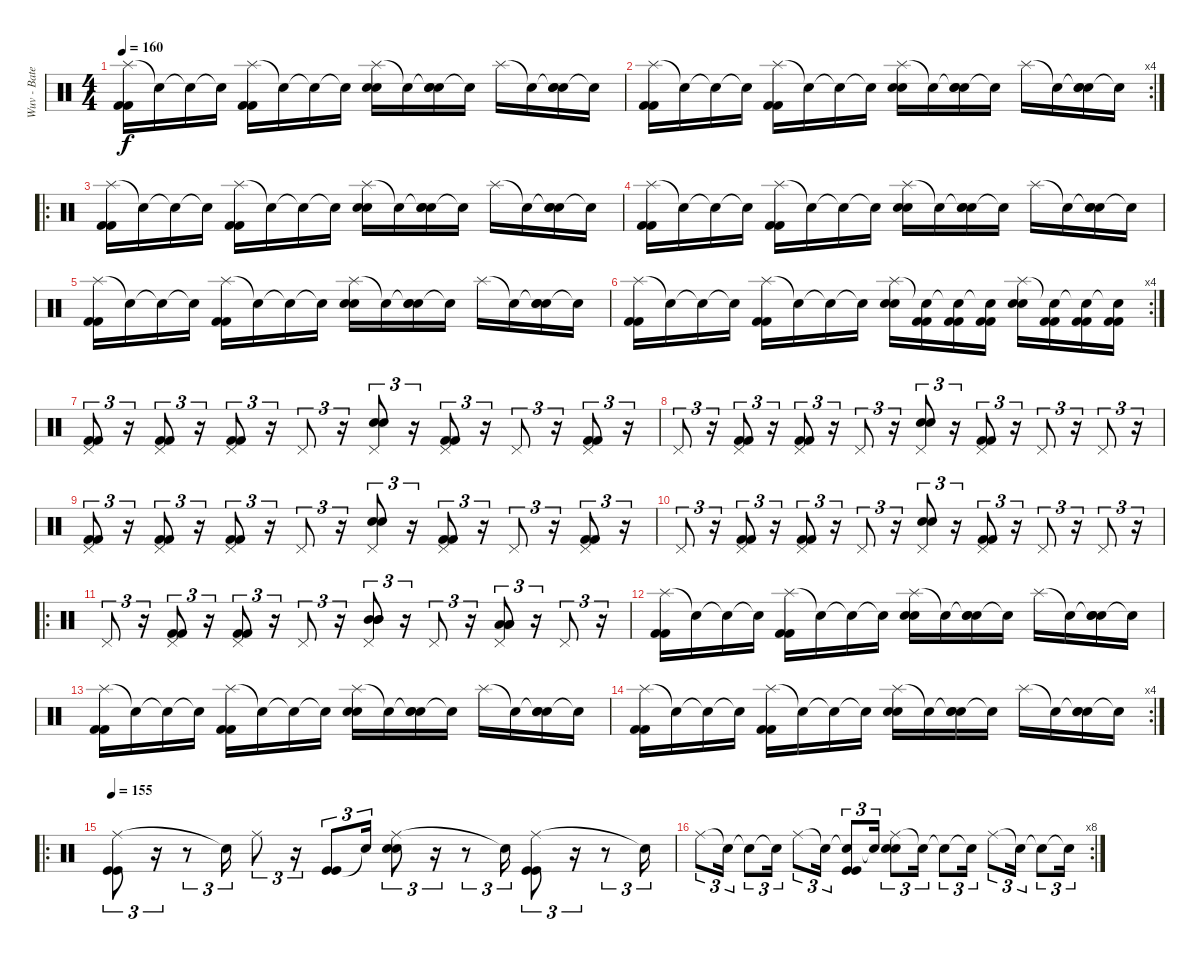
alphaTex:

\track ("Wuv - Bateria" "Wuv - Bate") {instrument percussion}
\staff {score}
\articulation defaults
\ts (4 4)
\tempo 160
\clef neutral
\ks c
("Splash (hit)" "Kick (hit) 2" "Kick (hit) 2").16{dy f} "Snare (hit)"{t}.16 "Snare (hit)"{t}.16 "Snare (hit)"{t}.16 ("Splash (hit)" "Kick (hit) 2" "Kick (hit) 2").16 "Snare (hit)"{t}.16 "Snare (hit)"{t}.16 "Snare (hit)"{t}.16 ("Splash (hit)" "Electric Snare (hit)" "Electric Snare (hit)").16 "Snare (hit)"{t}.16 ("Snare (hit)"{t} "Electric Snare (hit)" "Electric Snare (hit)").16 "Snare (hit)"{t}.16 "Splash (hit)".16 "Snare (hit)"{t}.16 ("Snare (hit)"{t} "Electric Snare (hit)" "Electric Snare (hit)").16 "Snare (hit)"{t}.16 |
\rc 4
("Splash (hit)" "Kick (hit) 2" "Kick (hit) 2").16 "Snare (hit)"{t}.16 "Snare (hit)"{t}.16 "Snare (hit)"{t}.16 ("Splash (hit)" "Kick (hit) 2" "Kick (hit) 2").16 "Snare (hit)"{t}.16 "Snare (hit)"{t}.16 "Snare (hit)"{t}.16 ("Splash (hit)" "Electric Snare (hit)" "Electric Snare (hit)").16 "Snare (hit)"{t}.16 ("Snare (hit)"{t} "Electric Snare (hit)" "Electric Snare (hit)").16 "Snare (hit)"{t}.16 "Splash (hit)".16 "Snare (hit)"{t}.16 ("Snare (hit)"{t} "Electric Snare (hit)" "Electric Snare (hit)").16 "Snare (hit)"{t}.16 |
\ro
("Splash (hit)" "Kick (hit) 2" "Kick (hit) 2").16 "Snare (hit)"{t}.16 "Snare (hit)"{t}.16 "Snare (hit)"{t}.16 ("Splash (hit)" "Kick (hit) 2" "Kick (hit) 2").16 "Snare (hit)"{t}.16 "Snare (hit)"{t}.16 "Snare (hit)"{t}.16 ("Splash (hit)" "Electric Snare (hit)" "Electric Snare (hit)").16 "Snare (hit)"{t}.16 ("Snare (hit)"{t} "Electric Snare (hit)" "Electric Snare (hit)").16 "Snare (hit)"{t}.16 "Splash (hit)".16 "Snare (hit)"{t}.16 ("Snare (hit)"{t} "Electric Snare (hit)" "Electric Snare (hit)").16 "Snare (hit)"{t}.16 |
("Splash (hit)" "Kick (hit) 2" "Kick (hit) 2").16 "Snare (hit)"{t}.16 "Snare (hit)"{t}.16 "Snare (hit)"{t}.16 ("Splash (hit)" "Kick (hit) 2" "Kick (hit) 2").16 "Snare (hit)"{t}.16 "Snare (hit)"{t}.16 "Snare (hit)"{t}.16 ("Splash (hit)" "Electric Snare (hit)" "Electric Snare (hit)").16 "Snare (hit)"{t}.16 ("Snare (hit)"{t} "Electric Snare (hit)" "Electric Snare (hit)").16 "Snare (hit)"{t}.16 "Splash (hit)".16 "Snare (hit)"{t}.16 ("Snare (hit)"{t} "Electric Snare (hit)" "Electric Snare (hit)").16 "Snare (hit)"{t}.16 |
("Splash (hit)" "Kick (hit) 2" "Kick (hit) 2").16 "Snare (hit)"{t}.16 "Snare (hit)"{t}.16 "Snare (hit)"{t}.16 ("Splash (hit)" "Kick (hit) 2" "Kick (hit) 2").16 "Snare (hit)"{t}.16 "Snare (hit)"{t}.16 "Snare (hit)"{t}.16 ("Splash (hit)" "Electric Snare (hit)" "Electric Snare (hit)").16 "Snare (hit)"{t}.16 ("Snare (hit)"{t} "Electric Snare (hit)" "Electric Snare (hit)").16 "Snare (hit)"{t}.16 "Splash (hit)".16 "Snare (hit)"{t}.16 ("Snare (hit)"{t} "Electric Snare (hit)" "Electric Snare (hit)").16 "Snare (hit)"{t}.16 |
\rc 4
("Splash (hit)" "Kick (hit) 2" "Kick (hit) 2").16 "Snare (hit)"{t}.16 "Snare (hit)"{t}.16 "Snare (hit)"{t}.16 ("Splash (hit)" "Kick (hit) 2" "Kick (hit) 2").16 "Snare (hit)"{t}.16 "Snare (hit)"{t}.16 "Snare (hit)"{t}.16 ("Splash (hit)" "Electric Snare (hit)" "Electric Snare (hit)").16 ("Snare (hit)"{t} "Kick (hit) 2" "Kick (hit) 2").16 ("Snare (hit)"{t} "Kick (hit) 2" "Kick (hit) 2").16 ("Snare (hit)"{t} "Kick (hit) 2" "Kick (hit) 2").16 ("Splash (hit)" "Electric Snare (hit)" "Electric Snare (hit)").16 ("Snare (hit)"{t} "Kick (hit) 2" "Kick (hit) 2").16 ("Snare (hit)"{t} "Kick (hit) 2" "Kick (hit) 2").16 ("Snare (hit)"{t} "Kick (hit) 2" "Kick (hit) 2").16 |
("Pedal Hi-Hat (hit)" "Kick (hit) 2" "Kick (hit) 2").8{tu (3 2)} r.16{tu (3 2)} ("Pedal Hi-Hat (hit)" "Kick (hit) 2" "Kick (hit) 2").8{tu (3 2)} r.16{tu (3 2)} ("Pedal Hi-Hat (hit)" "Kick (hit) 2" "Kick (hit) 2").8{tu (3 2)} r.16{tu (3 2)} "Pedal Hi-Hat (hit)".8{tu (3 2)} r.16{tu (3 2)} ("Pedal Hi-Hat (hit)" "Electric Snare (hit)" "Electric Snare (hit)").8{tu (3 2)} r.16{tu (3 2)} ("Pedal Hi-Hat (hit)" "Kick (hit) 2" "Kick (hit) 2").8{tu (3 2)} r.16{tu (3 2)} "Pedal Hi-Hat (hit)".8{tu (3 2)} r.16{tu (3 2)} ("Pedal Hi-Hat (hit)" "Kick (hit) 2" "Kick (hit) 2").8{tu (3 2)} r.16{tu (3 2)} |
"Pedal Hi-Hat (hit)".8{tu (3 2)} r.16{tu (3 2)} ("Pedal Hi-Hat (hit)" "Kick (hit) 2" "Kick (hit) 2").8{tu (3 2)} r.16{tu (3 2)} ("Pedal Hi-Hat (hit)" "Kick (hit) 2" "Kick (hit) 2").8{tu (3 2)} r.16{tu (3 2)} "Pedal Hi-Hat (hit)".8{tu (3 2)} r.16{tu (3 2)} ("Pedal Hi-Hat (hit)" "Electric Snare (hit)" "Electric Snare (hit)").8{tu (3 2)} r.16{tu (3 2)} ("Pedal Hi-Hat (hit)" "Kick (hit) 2" "Kick (hit) 2").8{tu (3 2)} r.16{tu (3 2)} "Pedal Hi-Hat (hit)".8{tu (3 2)} r.16{tu (3 2)} "Pedal Hi-Hat (hit)".8{tu (3 2)} r.16{tu (3 2)} |
("Pedal Hi-Hat (hit)" "Kick (hit) 2" "Kick (hit) 2").8{tu (3 2)} r.16{tu (3 2)} ("Pedal Hi-Hat (hit)" "Kick (hit) 2" "Kick (hit) 2").8{tu (3 2)} r.16{tu (3 2)} ("Pedal Hi-Hat (hit)" "Kick (hit) 2" "Kick (hit) 2").8{tu (3 2)} r.16{tu (3 2)} "Pedal Hi-Hat (hit)".8{tu (3 2)} r.16{tu (3 2)} ("Pedal Hi-Hat (hit)" "Electric Snare (hit)" "Electric Snare (hit)").8{tu (3 2)} r.16{tu (3 2)} ("Pedal Hi-Hat (hit)" "Kick (hit) 2" "Kick (hit) 2").8{tu (3 2)} r.16{tu (3 2)} "Pedal Hi-Hat (hit)".8{tu (3 2)} r.16{tu (3 2)} ("Pedal Hi-Hat (hit)" "Kick (hit) 2" "Kick (hit) 2").8{tu (3 2)} r.16{tu (3 2)} |
"Pedal Hi-Hat (hit)".8{tu (3 2)} r.16{tu (3 2)} ("Pedal Hi-Hat (hit)" "Kick (hit) 2" "Kick (hit) 2").8{tu (3 2)} r.16{tu (3 2)} ("Pedal Hi-Hat (hit)" "Kick (hit) 2" "Kick (hit) 2").8{tu (3 2)} r.16{tu (3 2)} "Pedal Hi-Hat (hit)".8{tu (3 2)} r.16{tu (3 2)} ("Pedal Hi-Hat (hit)" "Electric Snare (hit)" "Electric Snare (hit)").8{tu (3 2)} r.16{tu (3 2)} ("Pedal Hi-Hat (hit)" "Kick (hit) 2" "Kick (hit) 2").8{tu (3 2)} r.16{tu (3 2)} "Pedal Hi-Hat (hit)".8{tu (3 2)} r.16{tu (3 2)} "Pedal Hi-Hat (hit)".8{tu (3 2)} r.16{tu (3 2)} |
\ro "Pedal Hi-Hat (hit)".8{tu (3 2)}
r.16{tu (3 2)} ("Pedal Hi-Hat (hit)" "Kick (hit) 2" "Kick (hit) 2").8{tu (3 2)} r.16{tu (3 2)} ("Pedal Hi-Hat (hit)" "Kick (hit) 2" "Kick (hit) 2").8{tu (3 2)} r.16{tu (3 2)} "Pedal Hi-Hat (hit)".8{tu (3 2)} r.16{tu (3 2)} ("Pedal Hi-Hat (hit)" "Mid Tom (hit)" "Mid Tom (hit)" "Mid Tom (hit)").8{tu (3 2)} r.16{tu (3 2)} "Pedal Hi-Hat (hit)".8{tu (3 2)} r.16{tu (3 2)} ("Pedal Hi-Hat (hit)" "Low Tom (hit)" "Low Tom (hit)" "Low Tom (hit)").8{tu (3 2)} r.16{tu (3 2)} "Pedal Hi-Hat (hit)".8{tu (3 2)} r.16{tu (3 2)} |
("Splash (hit)" "Kick (hit) 2" "Kick (hit) 2").16 "Snare (hit)"{t}.16 "Snare (hit)"{t}.16 "Snare (hit)"{t}.16 ("Splash (hit)" "Kick (hit) 2" "Kick (hit) 2").16 "Snare (hit)"{t}.16 "Snare (hit)"{t}.16 "Snare (hit)"{t}.16 ("Splash (hit)" "Electric Snare (hit)" "Electric Snare (hit)").16 "Snare (hit)"{t}.16 ("Snare (hit)"{t} "Electric Snare (hit)" "Electric Snare (hit)").16 "Snare (hit)"{t}.16 "Splash (hit)".16 "Snare (hit)"{t}.16 ("Snare (hit)"{t} "Electric Snare (hit)" "Electric Snare (hit)").16 "Snare (hit)"{t}.16 |
("Splash (hit)" "Kick (hit) 2" "Kick (hit) 2").16 "Snare (hit)"{t}.16 "Snare (hit)"{t}.16 "Snare (hit)"{t}.16 ("Splash (hit)" "Kick (hit) 2" "Kick (hit) 2").16 "Snare (hit)"{t}.16 "Snare (hit)"{t}.16 "Snare (hit)"{t}.16 ("Splash (hit)" "Electric Snare (hit)" "Electric Snare (hit)").16 "Snare (hit)"{t}.16 ("Snare (hit)"{t} "Electric Snare (hit)" "Electric Snare (hit)").16 "Snare (hit)"{t}.16 "Splash (hit)".16 "Snare (hit)"{t}.16 ("Snare (hit)"{t} "Electric Snare (hit)" "Electric Snare (hit)").16 "Snare (hit)"{t}.16 |
\rc 4
("Splash (hit)" "Kick (hit) 2" "Kick (hit) 2").16 "Snare (hit)"{t}.16 "Snare (hit)"{t}.16 "Snare (hit)"{t}.16 ("Splash (hit)" "Kick (hit) 2" "Kick (hit) 2").16 "Snare (hit)"{t}.16 "Snare (hit)"{t}.16 "Snare (hit)"{t}.16 ("Splash (hit)" "Electric Snare (hit)" "Electric Snare (hit)").16 "Snare (hit)"{t}.16 ("Snare (hit)"{t} "Electric Snare (hit)" "Electric Snare (hit)").16 "Snare (hit)"{t}.16 "Splash (hit)".16 "Snare (hit)"{t}.16 ("Snare (hit)"{t} "Electric Snare (hit)" "Electric Snare (hit)").16 "Snare (hit)"{t}.16 |
\ro
\tempo 155
("Ride (middle)" "Kick (hit)" "Kick (hit)").8{tu (3 2)} r.16{tu (3 2)} r.8{tu (3 2)} "Snare (hit)"{t}.16{tu (3 2)} "Ride (middle)".8{tu (3 2)} r.16{tu (3 2)} ("Kick (hit)" "Kick (hit)").8{tu (3 2)} "Snare (hit)"{t}.16{tu (3 2)} ("Ride (middle)" "Snare (hit) 2" "Snare (hit) 2").8{tu (3 2)} r.16{tu (3 2)} r.8{tu (3 2)} "Snare (hit)"{t}.16{tu (3 2)} ("Ride (middle)" "Kick (hit)" "Kick (hit)").8{tu (3 2)} r.16{tu (3 2)} r.8{tu (3 2)} "Snare (hit)"{t}.16{tu (3 2)} |
\rc 8 "Ride (middle)".8{tu (3 2)} "Snare (hit)"{t}.16{tu (3 2)} "Snare (hit)"{t}.8{tu (3 2)} "Snare (hit)"{t}.16{tu (3 2)} "Ride (middle)".8{tu (3 2)} "Snare (hit)"{t}.16{tu (3 2)}
("Snare (hit)"{t} "Kick (hit)" "Kick (hit)").8{tu (3 2)} "Snare (hit)"{t}.16{tu (3 2)} ("Ride (middle)" "Snare (hit) 2" "Snare (hit) 2").8{tu (3 2)} "Snare (hit)"{t}.16{tu (3 2)} "Snare (hit)"{t}.8{tu (3 2)} "Snare (hit)"{t}.16{tu (3 2)} "Ride (middle)".8{tu (3 2)} "Snare (hit)"{t}.16{tu (3 2)} "Snare (hit)"{t}.8{tu (3 2)} "Snare (hit)"{t}.16{tu (3 2)}
